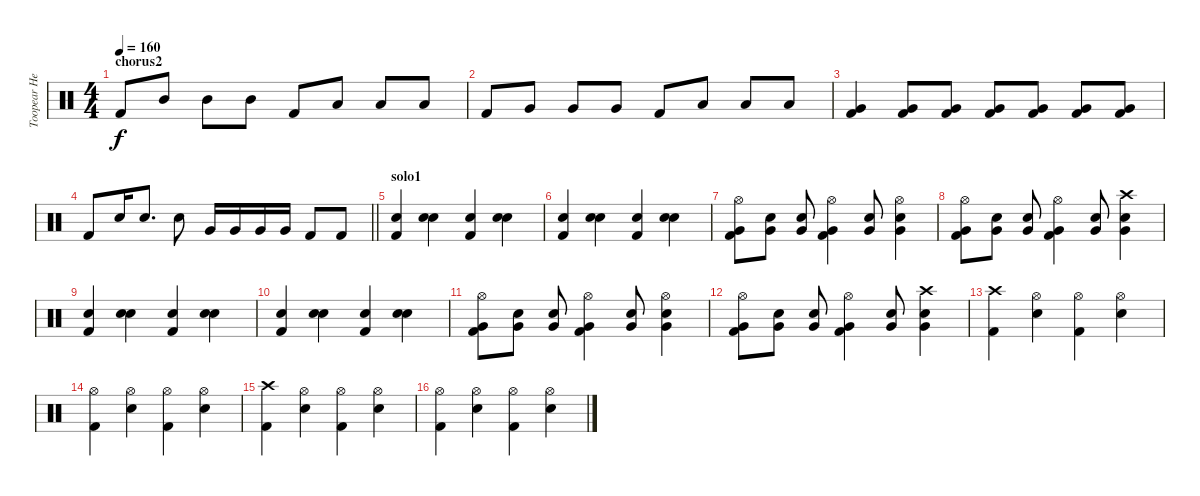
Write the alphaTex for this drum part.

\track ("Toopear Headon" "Toopear He") {instrument percussion}
\staff {score}
\articulation defaults
\ts (4 4)
\section ("" "chorus2")
\tempo 160
\clef neutral
\ks c "Kick (hit) 2".8{dy f} "Mid Tom (hit)".8 "Mid Tom (hit)".8 "Mid Tom (hit)".8 "Kick (hit) 2".8 "Low Tom (hit)".8 "Low Tom (hit)".8 "Low Tom (hit)".8
|
"Kick (hit) 2".8 "Very Low Tom (hit)".8 "Very Low Tom (hit)".8 "Very Low Tom (hit)".8 "Kick (hit) 2".8 "Low Floor Tom (hit)".8 "Low Floor Tom (hit)".8 "Low Floor Tom (hit)".8 |
("Very Low Tom (hit)" "Kick (hit) 2").4 ("Very Low Tom (hit)" "Kick (hit) 2").8 ("Very Low Tom (hit)" "Kick (hit) 2").8 ("Very Low Tom (hit)" "Kick (hit) 2").8 ("Very Low Tom (hit)" "Kick (hit) 2").8 ("Very Low Tom (hit)" "Kick (hit) 2").8 ("Very Low Tom (hit)" "Kick (hit) 2").8 |
\barLineRight lightlight "Kick (hit) 2".8 "Electric Snare (hit)".16 "Electric Snare (hit)".8{d} "Electric Snare (hit)".8 "Very Low Tom (hit)".16 "Very Low Tom (hit)".16 "Very Low Tom (hit)".16 "Very Low Tom (hit)".16 "Kick (hit) 2".8 "Kick (hit) 2".8
|
\section ("" "solo1")
("Metronome (bell)" "Kick (hit) 2").4 ("Metronome (bell)" "Electric Snare (hit)").4 ("Metronome (bell)" "Kick (hit) 2").4 ("Metronome (bell)" "Electric Snare (hit)").4 |
("Metronome (bell)" "Kick (hit) 2").4 ("Metronome (bell)" "Electric Snare (hit)").4 ("Metronome (bell)" "Kick (hit) 2").4 ("Metronome (bell)" "Electric Snare (hit)").4 |
("Hi-Hat (open)" "Very Low Tom (hit)" "Kick (hit) 2").8 ("Very Low Tom (hit)" "Electric Snare (hit)").8 ("Very Low Tom (hit)" "Electric Snare (hit)").8 ("Hi-Hat (open)" "Very Low Tom (hit)" "Kick (hit) 2").4 ("Very Low Tom (hit)" "Electric Snare (hit)").8 ("Hi-Hat (open)" "Very Low Tom (hit)" "Electric Snare (hit)").4 |
("Hi-Hat (open)" "Very Low Tom (hit)" "Kick (hit) 2").8 ("Very Low Tom (hit)" "Electric Snare (hit)").8 ("Very Low Tom (hit)" "Electric Snare (hit)").8 ("Hi-Hat (open)" "Very Low Tom (hit)" "Kick (hit) 2").4 ("Very Low Tom (hit)" "Electric Snare (hit)").8 ("Crash high (hit)" "Very Low Tom (hit)" "Electric Snare (hit)").4 |
("Metronome (bell)" "Kick (hit) 2").4 ("Metronome (bell)" "Electric Snare (hit)").4 ("Metronome (bell)" "Kick (hit) 2").4 ("Metronome (bell)" "Electric Snare (hit)").4 |
("Metronome (bell)" "Kick (hit) 2").4 ("Metronome (bell)" "Electric Snare (hit)").4 ("Metronome (bell)" "Kick (hit) 2").4 ("Metronome (bell)" "Electric Snare (hit)").4 |
("Hi-Hat (open)" "Very Low Tom (hit)" "Kick (hit) 2").8 ("Very Low Tom (hit)" "Electric Snare (hit)").8 ("Very Low Tom (hit)" "Electric Snare (hit)").8 ("Hi-Hat (open)" "Very Low Tom (hit)" "Kick (hit) 2").4 ("Very Low Tom (hit)" "Electric Snare (hit)").8 ("Hi-Hat (open)" "Very Low Tom (hit)" "Electric Snare (hit)").4 |
("Hi-Hat (open)" "Very Low Tom (hit)" "Kick (hit) 2").8 ("Very Low Tom (hit)" "Electric Snare (hit)").8 ("Very Low Tom (hit)" "Electric Snare (hit)").8 ("Hi-Hat (open)" "Very Low Tom (hit)" "Kick (hit) 2").4 ("Very Low Tom (hit)" "Electric Snare (hit)").8 ("Crash high (hit)" "Very Low Tom (hit)" "Electric Snare (hit)").4 |
("Crash high (hit)" "Kick (hit) 2").4 ("Hi-Hat (open)" "Electric Snare (hit)").4 ("Hi-Hat (open)" "Kick (hit) 2").4 ("Hi-Hat (open)" "Electric Snare (hit)").4 |
("Hi-Hat (open)" "Kick (hit) 2").4 ("Hi-Hat (open)" "Electric Snare (hit)").4 ("Hi-Hat (open)" "Kick (hit) 2").4 ("Hi-Hat (open)" "Electric Snare (hit)").4 |
("Crash high (hit)" "Kick (hit) 2").4 ("Hi-Hat (open)" "Electric Snare (hit)").4 ("Hi-Hat (open)" "Kick (hit) 2").4 ("Hi-Hat (open)" "Electric Snare (hit)").4 |
("Hi-Hat (open)" "Kick (hit) 2").4 ("Hi-Hat (open)" "Electric Snare (hit)").4 ("Hi-Hat (open)" "Kick (hit) 2").4 ("Hi-Hat (open)" "Electric Snare (hit)").4
